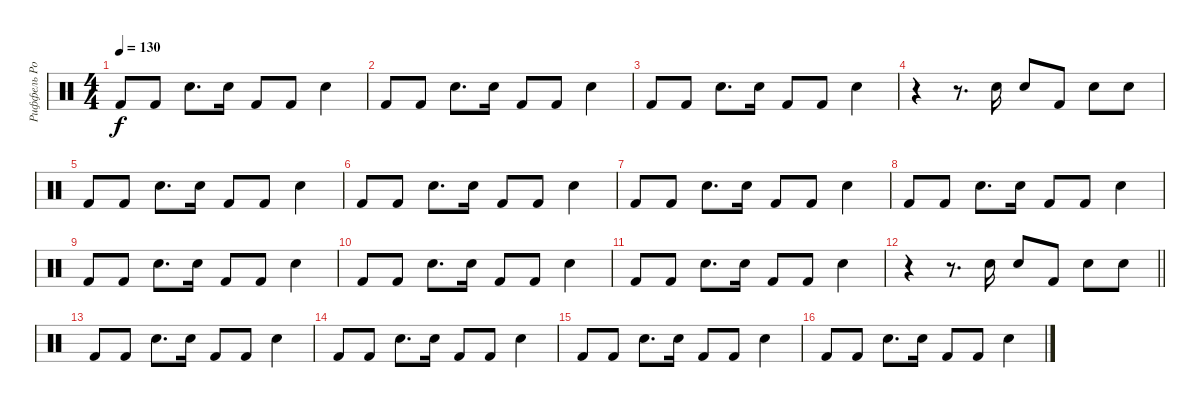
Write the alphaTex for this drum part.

\track ("Риффель Роман (главные)" "Риффель Ро") {instrument percussion}
\staff {score}
\articulation defaults
\ts (4 4)
\tempo 130
\clef neutral
\ks c "Kick (hit) 2".8{dy f} "Kick (hit) 2".8 "Electric Snare (hit)".8{d} "Electric Snare (hit)".16 "Kick (hit) 2".8 "Kick (hit) 2".8 "Electric Snare (hit)".4
|
"Kick (hit) 2".8 "Kick (hit) 2".8 "Electric Snare (hit)".8{d} "Electric Snare (hit)".16 "Kick (hit) 2".8 "Kick (hit) 2".8 "Electric Snare (hit)".4 |
"Kick (hit) 2".8 "Kick (hit) 2".8 "Electric Snare (hit)".8{d} "Electric Snare (hit)".16 "Kick (hit) 2".8 "Kick (hit) 2".8 "Electric Snare (hit)".4 |
r.4 r.8{d} "Electric Snare (hit)".16 "Electric Snare (hit)".8 "Kick (hit) 2".8 "Electric Snare (hit)".8 "Electric Snare (hit)".8 |
"Kick (hit) 2".8 "Kick (hit) 2".8 "Electric Snare (hit)".8{d} "Electric Snare (hit)".16 "Kick (hit) 2".8 "Kick (hit) 2".8 "Electric Snare (hit)".4 |
"Kick (hit) 2".8 "Kick (hit) 2".8 "Electric Snare (hit)".8{d} "Electric Snare (hit)".16 "Kick (hit) 2".8 "Kick (hit) 2".8 "Electric Snare (hit)".4 |
"Kick (hit) 2".8 "Kick (hit) 2".8 "Electric Snare (hit)".8{d} "Electric Snare (hit)".16 "Kick (hit) 2".8 "Kick (hit) 2".8 "Electric Snare (hit)".4 |
"Kick (hit) 2".8 "Kick (hit) 2".8 "Electric Snare (hit)".8{d} "Electric Snare (hit)".16 "Kick (hit) 2".8 "Kick (hit) 2".8 "Electric Snare (hit)".4 |
"Kick (hit) 2".8 "Kick (hit) 2".8 "Electric Snare (hit)".8{d} "Electric Snare (hit)".16 "Kick (hit) 2".8 "Kick (hit) 2".8 "Electric Snare (hit)".4 |
"Kick (hit) 2".8 "Kick (hit) 2".8 "Electric Snare (hit)".8{d} "Electric Snare (hit)".16 "Kick (hit) 2".8 "Kick (hit) 2".8 "Electric Snare (hit)".4 |
"Kick (hit) 2".8 "Kick (hit) 2".8 "Electric Snare (hit)".8{d} "Electric Snare (hit)".16 "Kick (hit) 2".8 "Kick (hit) 2".8 "Electric Snare (hit)".4 |
\barLineRight lightlight
r.4 r.8{d} "Electric Snare (hit)".16 "Electric Snare (hit)".8 "Kick (hit) 2".8 "Electric Snare (hit)".8 "Electric Snare (hit)".8 |
"Kick (hit) 2".8 "Kick (hit) 2".8 "Electric Snare (hit)".8{d} "Electric Snare (hit)".16 "Kick (hit) 2".8 "Kick (hit) 2".8 "Electric Snare (hit)".4 |
"Kick (hit) 2".8 "Kick (hit) 2".8 "Electric Snare (hit)".8{d} "Electric Snare (hit)".16 "Kick (hit) 2".8 "Kick (hit) 2".8 "Electric Snare (hit)".4 |
"Kick (hit) 2".8 "Kick (hit) 2".8 "Electric Snare (hit)".8{d} "Electric Snare (hit)".16 "Kick (hit) 2".8 "Kick (hit) 2".8 "Electric Snare (hit)".4 |
"Kick (hit) 2".8 "Kick (hit) 2".8 "Electric Snare (hit)".8{d} "Electric Snare (hit)".16 "Kick (hit) 2".8 "Kick (hit) 2".8 "Electric Snare (hit)".4
